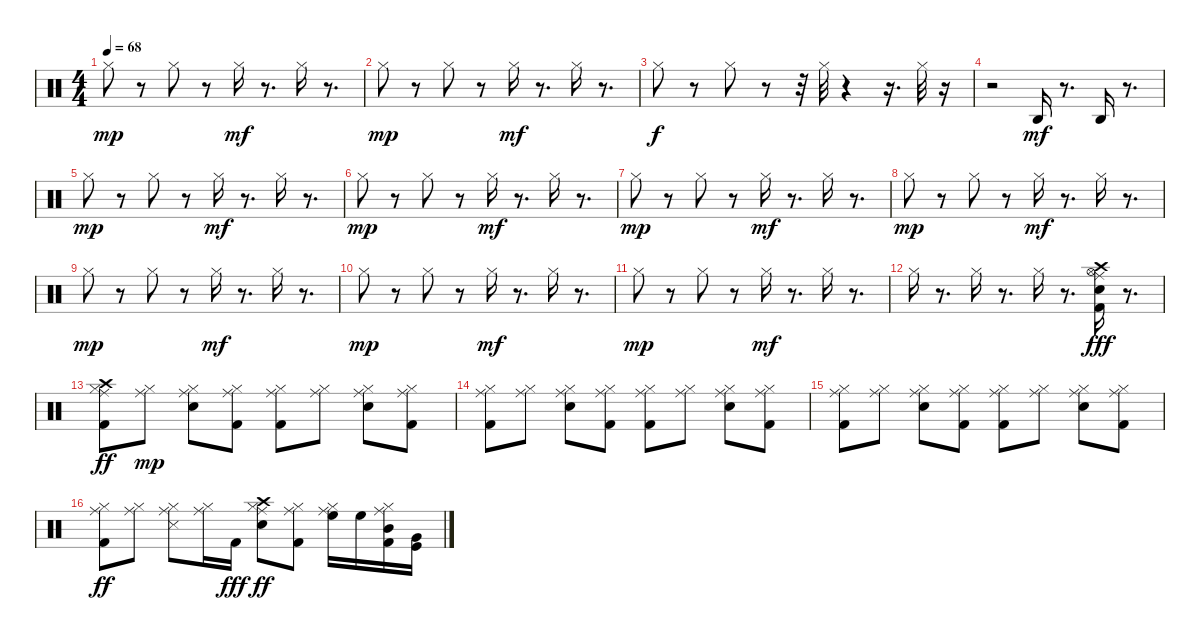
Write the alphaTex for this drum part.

\track "" {instrument percussion}
\staff {score}
\articulation defaults
\ts (4 4)
\tempo 68
\clef neutral
\ks c "Hi-Hat (closed)".8{dy mp}
r.8 "Hi-Hat (closed)".8 r.8 "Hi-Hat (closed)".16{dy mf} r.8{d} "Hi-Hat (closed)".16 r.8{d} |
"Hi-Hat (closed)".8{dy mp} r.8 "Hi-Hat (closed)".8 r.8 "Hi-Hat (closed)".16{dy mf} r.8{d} "Hi-Hat (closed)".16 r.8{d} |
"Hi-Hat (closed)".8{dy f} r.8 "Hi-Hat (closed)".8 r.8 r.32 "Hi-Hat (closed)".32 r.4 r.16{d} "Hi-Hat (closed)".32 r.16 |
r.2 "Agogo high (hit)".16{dy mf} r.8{d} "Agogo high (hit)".16 r.8{d} |
"Hi-Hat (closed)".8{dy mp} r.8 "Hi-Hat (closed)".8 r.8 "Hi-Hat (closed)".16{dy mf} r.8{d} "Hi-Hat (closed)".16 r.8{d} |
"Hi-Hat (closed)".8{dy mp} r.8 "Hi-Hat (closed)".8 r.8 "Hi-Hat (closed)".16{dy mf} r.8{d} "Hi-Hat (closed)".16 r.8{d} |
"Hi-Hat (closed)".8{dy mp} r.8 "Hi-Hat (closed)".8 r.8 "Hi-Hat (closed)".16{dy mf} r.8{d} "Hi-Hat (closed)".16 r.8{d} |
"Hi-Hat (closed)".8{dy mp} r.8 "Hi-Hat (closed)".8 r.8 "Hi-Hat (closed)".16{dy mf} r.8{d} "Hi-Hat (closed)".16 r.8{d} |
"Hi-Hat (closed)".8{dy mp} r.8 "Hi-Hat (closed)".8 r.8 "Hi-Hat (closed)".16{dy mf} r.8{d} "Hi-Hat (closed)".16 r.8{d} |
"Hi-Hat (closed)".8{dy mp} r.8 "Hi-Hat (closed)".8 r.8 "Hi-Hat (closed)".16{dy mf} r.8{d} "Hi-Hat (closed)".16 r.8{d} |
"Hi-Hat (closed)".8{dy mp} r.8 "Hi-Hat (closed)".8 r.8 "Hi-Hat (closed)".16{dy mf} r.8{d} "Hi-Hat (closed)".16 r.8{d} |
"Hi-Hat (closed)".16 r.8{d} "Hi-Hat (closed)".16 r.8{d} "Hi-Hat (closed)".16 r.8{d} ("Kick (hit) 2" "Electric Snare (hit)" "Hi-Hat (open)" "Crash high (hit)" "Ride (middle)").16{dy fff} r.8{d} |
("Kick (hit) 2" "Hi-Hat (closed)" "Crash high (hit)" "Ride (middle)").8{dy ff} ("Hi-Hat (closed)" "Ride (middle)").8{dy mp} ("Electric Snare (hit)" "Hi-Hat (closed)" "Ride (middle)").8 ("Kick (hit) 2" "Hi-Hat (closed)" "Ride (middle)").8 ("Kick (hit) 2" "Hi-Hat (closed)" "Ride (middle)").8 ("Hi-Hat (closed)" "Ride (middle)").8 ("Electric Snare (hit)" "Hi-Hat (closed)" "Ride (middle)").8 ("Kick (hit) 2" "Hi-Hat (closed)" "Ride (middle)").8 |
("Kick (hit) 2" "Hi-Hat (closed)" "Ride (middle)").8 ("Hi-Hat (closed)" "Ride (middle)").8 ("Electric Snare (hit)" "Hi-Hat (closed)" "Ride (middle)").8 ("Kick (hit) 2" "Hi-Hat (closed)" "Ride (middle)").8 ("Kick (hit) 2" "Hi-Hat (closed)" "Ride (middle)").8 ("Hi-Hat (closed)" "Ride (middle)").8 ("Electric Snare (hit)" "Hi-Hat (closed)" "Ride (middle)").8 ("Kick (hit) 2" "Hi-Hat (closed)" "Ride (middle)").8 |
("Kick (hit) 2" "Hi-Hat (closed)" "Ride (middle)").8 ("Hi-Hat (closed)" "Ride (middle)").8 ("Electric Snare (hit)" "Hi-Hat (closed)" "Ride (middle)").8 ("Kick (hit) 2" "Hi-Hat (closed)" "Ride (middle)").8 ("Kick (hit) 2" "Hi-Hat (closed)" "Ride (middle)").8 ("Hi-Hat (closed)" "Ride (middle)").8 ("Electric Snare (hit)" "Hi-Hat (closed)" "Ride (middle)").8 ("Kick (hit) 2" "Hi-Hat (closed)" "Ride (middle)").8 |
("Kick (hit) 2" "Hi-Hat (closed)" "Ride (middle)").8{dy ff} ("Hi-Hat (closed)" "Ride (middle)").8 ("Snare (side stick) 3" "Hi-Hat (closed)" "Ride (middle)").8 ("Hi-Hat (closed)" "Ride (middle)").16 "Kick (hit) 2".16{dy fff} ("Electric Snare (hit)" "Hi-Hat (closed)" "Crash high (hit)" "Ride (middle)").8{dy ff} ("Kick (hit) 2" "Hi-Hat (closed)" "Ride (middle)").8 ("Hi-Hat (closed)" "High Floor Tom (hit)" "Ride (middle)").16 "High Floor Tom (hit)".16 ("Kick (hit) 2" "Hi-Hat (closed)" "Mid Tom (hit)" "Ride (middle)").16 ("Kick (hit)" "Very Low Tom (hit)").16
